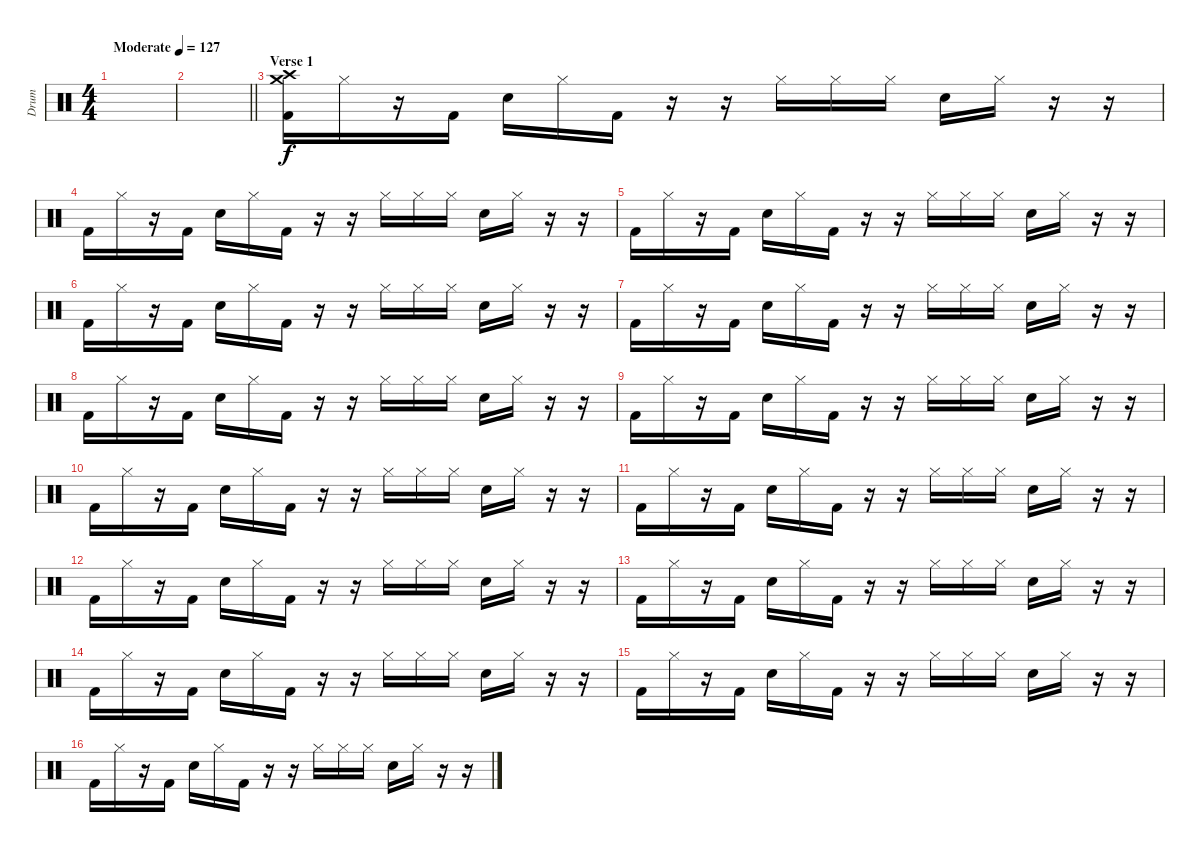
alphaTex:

\track ("Drum" "Drum") {instrument percussion}
\staff {score}
\articulation defaults
\ts (4 4)
\tempo (127 "Moderate")
\clef neutral
\ks c
|
\barLineRight lightlight
|
\section ("" "Verse 1")
("Crash medium (hit)" "Crash high (hit)" "Kick (hit) 2").16 "Hi-Hat (closed)".16 r.16 "Kick (hit) 2".16 "Electric Snare (hit)".16 "Hi-Hat (closed)".16 "Kick (hit) 2".16 r.16 r.16 "Hi-Hat (closed)".16 "Hi-Hat (closed)".16 "Hi-Hat (closed)".16 "Electric Snare (hit)".16 "Hi-Hat (closed)".16 r.16 r.16 |
"Kick (hit) 2".16 "Hi-Hat (closed)".16 r.16 "Kick (hit) 2".16 "Electric Snare (hit)".16 "Hi-Hat (closed)".16 "Kick (hit) 2".16 r.16 r.16 "Hi-Hat (closed)".16 "Hi-Hat (closed)".16 "Hi-Hat (closed)".16 "Electric Snare (hit)".16 "Hi-Hat (closed)".16 r.16 r.16 |
"Kick (hit) 2".16 "Hi-Hat (closed)".16 r.16 "Kick (hit) 2".16 "Electric Snare (hit)".16 "Hi-Hat (closed)".16 "Kick (hit) 2".16 r.16 r.16 "Hi-Hat (closed)".16 "Hi-Hat (closed)".16 "Hi-Hat (closed)".16 "Electric Snare (hit)".16 "Hi-Hat (closed)".16 r.16 r.16 |
"Kick (hit) 2".16 "Hi-Hat (closed)".16 r.16 "Kick (hit) 2".16 "Electric Snare (hit)".16 "Hi-Hat (closed)".16 "Kick (hit) 2".16 r.16 r.16 "Hi-Hat (closed)".16 "Hi-Hat (closed)".16 "Hi-Hat (closed)".16 "Electric Snare (hit)".16 "Hi-Hat (closed)".16 r.16 r.16 |
"Kick (hit) 2".16 "Hi-Hat (closed)".16 r.16 "Kick (hit) 2".16 "Electric Snare (hit)".16 "Hi-Hat (closed)".16 "Kick (hit) 2".16 r.16 r.16 "Hi-Hat (closed)".16 "Hi-Hat (closed)".16 "Hi-Hat (closed)".16 "Electric Snare (hit)".16 "Hi-Hat (closed)".16 r.16 r.16 |
"Kick (hit) 2".16 "Hi-Hat (closed)".16 r.16 "Kick (hit) 2".16 "Electric Snare (hit)".16 "Hi-Hat (closed)".16 "Kick (hit) 2".16 r.16 r.16 "Hi-Hat (closed)".16 "Hi-Hat (closed)".16 "Hi-Hat (closed)".16 "Electric Snare (hit)".16 "Hi-Hat (closed)".16 r.16 r.16 |
"Kick (hit) 2".16 "Hi-Hat (closed)".16 r.16 "Kick (hit) 2".16 "Electric Snare (hit)".16 "Hi-Hat (closed)".16 "Kick (hit) 2".16 r.16 r.16 "Hi-Hat (closed)".16 "Hi-Hat (closed)".16 "Hi-Hat (closed)".16 "Electric Snare (hit)".16 "Hi-Hat (closed)".16 r.16 r.16 |
"Kick (hit) 2".16 "Hi-Hat (closed)".16 r.16 "Kick (hit) 2".16 "Electric Snare (hit)".16 "Hi-Hat (closed)".16 "Kick (hit) 2".16 r.16 r.16 "Hi-Hat (closed)".16 "Hi-Hat (closed)".16 "Hi-Hat (closed)".16 "Electric Snare (hit)".16 "Hi-Hat (closed)".16 r.16 r.16 |
"Kick (hit) 2".16 "Hi-Hat (closed)".16 r.16 "Kick (hit) 2".16 "Electric Snare (hit)".16 "Hi-Hat (closed)".16 "Kick (hit) 2".16 r.16 r.16 "Hi-Hat (closed)".16 "Hi-Hat (closed)".16 "Hi-Hat (closed)".16 "Electric Snare (hit)".16 "Hi-Hat (closed)".16 r.16 r.16 |
"Kick (hit) 2".16 "Hi-Hat (closed)".16 r.16 "Kick (hit) 2".16 "Electric Snare (hit)".16 "Hi-Hat (closed)".16 "Kick (hit) 2".16 r.16 r.16 "Hi-Hat (closed)".16 "Hi-Hat (closed)".16 "Hi-Hat (closed)".16 "Electric Snare (hit)".16 "Hi-Hat (closed)".16 r.16 r.16 |
"Kick (hit) 2".16 "Hi-Hat (closed)".16 r.16 "Kick (hit) 2".16 "Electric Snare (hit)".16 "Hi-Hat (closed)".16 "Kick (hit) 2".16 r.16 r.16 "Hi-Hat (closed)".16 "Hi-Hat (closed)".16 "Hi-Hat (closed)".16 "Electric Snare (hit)".16 "Hi-Hat (closed)".16 r.16 r.16 |
"Kick (hit) 2".16 "Hi-Hat (closed)".16 r.16 "Kick (hit) 2".16 "Electric Snare (hit)".16 "Hi-Hat (closed)".16 "Kick (hit) 2".16 r.16 r.16 "Hi-Hat (closed)".16 "Hi-Hat (closed)".16 "Hi-Hat (closed)".16 "Electric Snare (hit)".16 "Hi-Hat (closed)".16 r.16 r.16 |
"Kick (hit) 2".16 "Hi-Hat (closed)".16 r.16 "Kick (hit) 2".16 "Electric Snare (hit)".16 "Hi-Hat (closed)".16 "Kick (hit) 2".16 r.16 r.16 "Hi-Hat (closed)".16 "Hi-Hat (closed)".16 "Hi-Hat (closed)".16 "Electric Snare (hit)".16 "Hi-Hat (closed)".16 r.16 r.16 |
"Kick (hit) 2".16 "Hi-Hat (closed)".16 r.16 "Kick (hit) 2".16 "Electric Snare (hit)".16 "Hi-Hat (closed)".16 "Kick (hit) 2".16 r.16 r.16 "Hi-Hat (closed)".16 "Hi-Hat (closed)".16 "Hi-Hat (closed)".16 "Electric Snare (hit)".16 "Hi-Hat (closed)".16 r.16 r.16
